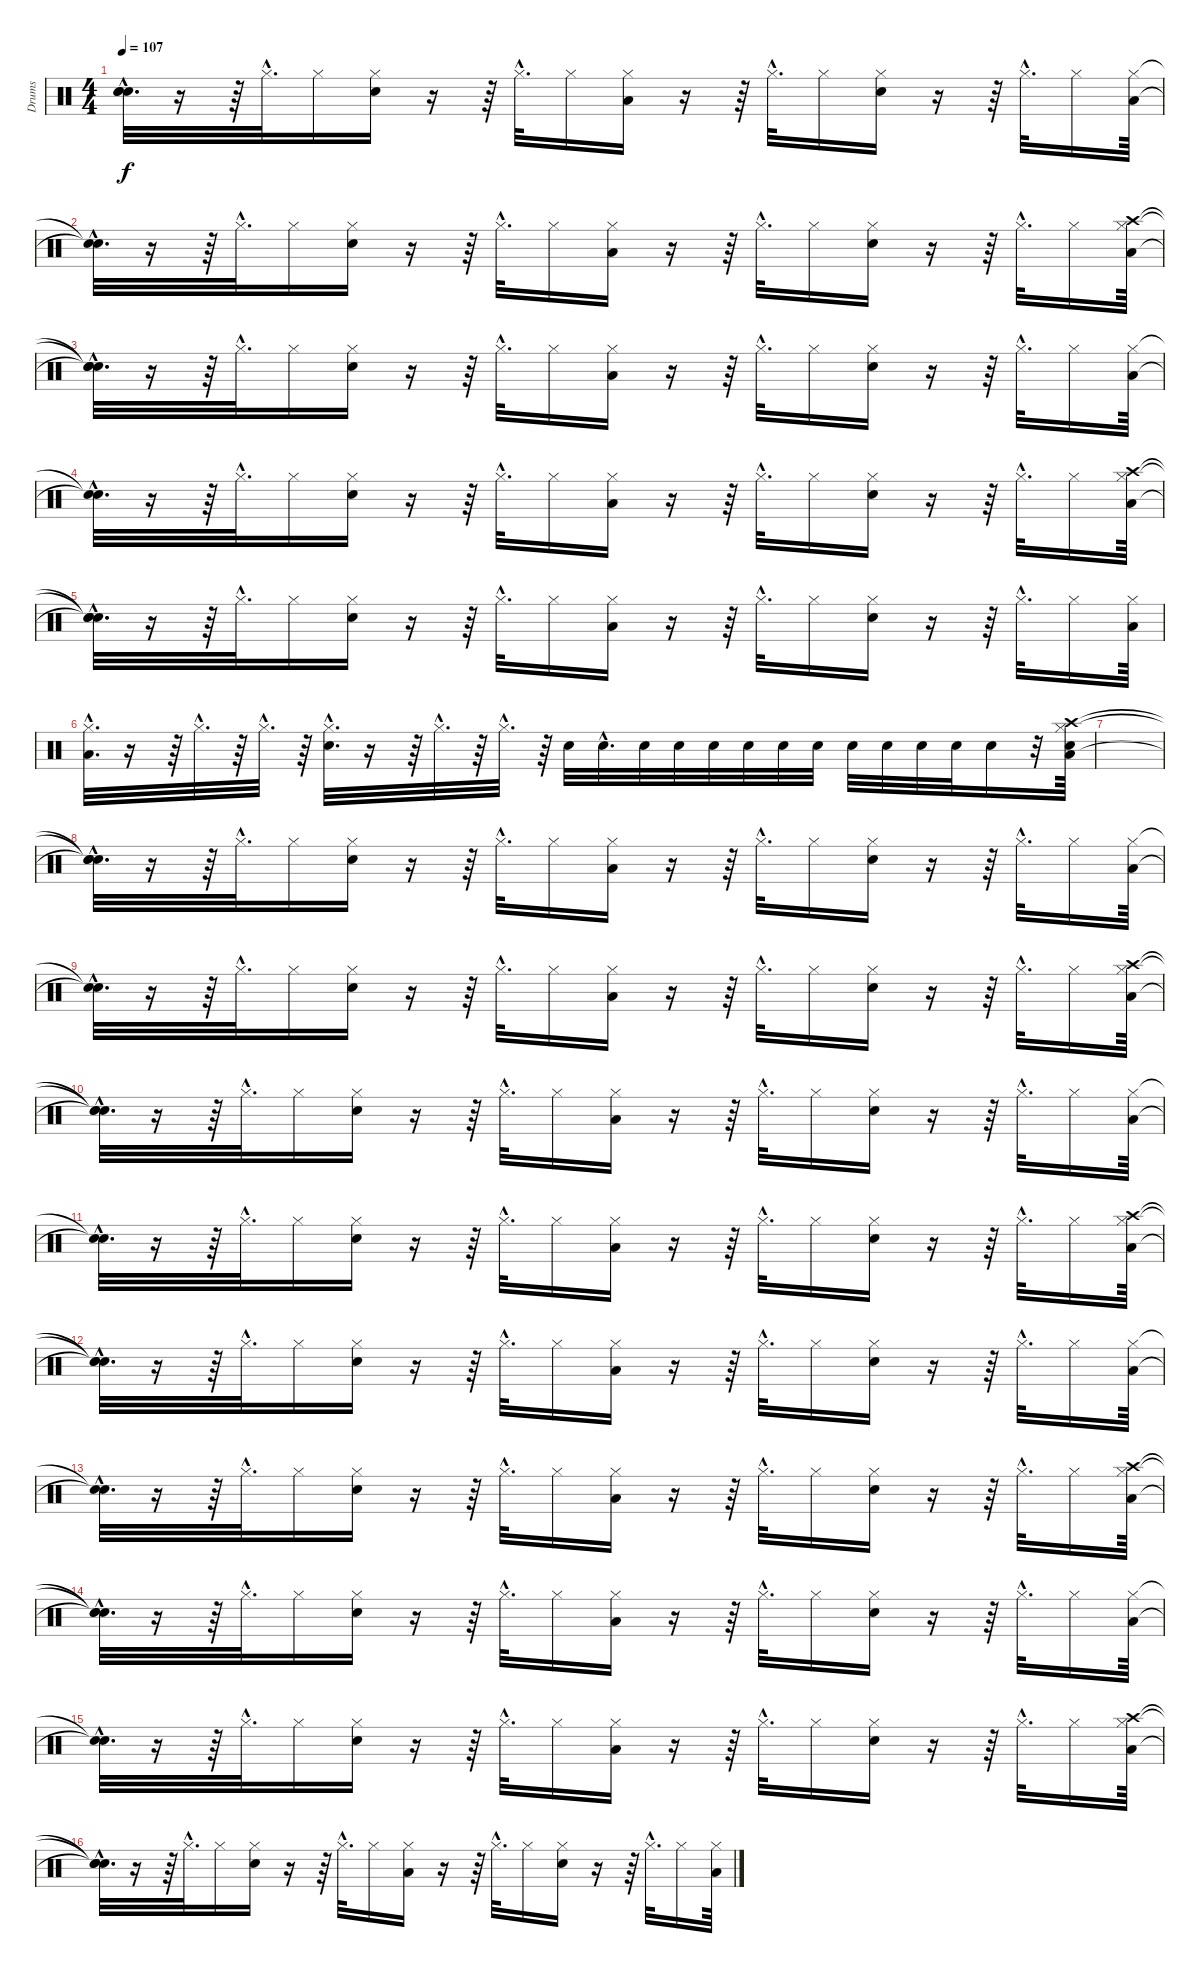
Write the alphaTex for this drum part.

\track ("Drums" "Drums") {instrument percussion}
\staff {score}
\articulation defaults
\ts (4 4)
\tempo 107
\clef neutral
\ks c
("Snare (hit)"{hac t} "Snare (hit)"{hac t} "Snare (hit)"{hac t}).32{d dy f} r.16 r.64 "Hi-Hat (closed)"{hac}.32{d} "Hi-Hat (closed)".16 ("Hi-Hat (closed)" "Snare (hit) 2").16 r.16 r.64 "Hi-Hat (closed)"{hac}.32{d} "Hi-Hat (closed)".16 ("Hi-Hat (closed)" "Low Tom (hit)").16 r.16 r.64 "Hi-Hat (closed)"{hac}.32{d} "Hi-Hat (closed)".16 ("Hi-Hat (closed)" "Snare (hit) 2").16 r.16 r.64 "Hi-Hat (closed)"{hac}.32{d} "Hi-Hat (closed)".16 ("Hi-Hat (closed)" "Low Tom (hit)").64 |
("Snare (hit)"{hac t} "Snare (hit)"{hac t}).32{d} r.16 r.64 "Hi-Hat (closed)"{hac}.32{d} "Hi-Hat (closed)".16 ("Hi-Hat (closed)" "Snare (hit) 2").16 r.16 r.64 "Hi-Hat (closed)"{hac}.32{d} "Hi-Hat (closed)".16 ("Hi-Hat (closed)" "Low Tom (hit)").16 r.16 r.64 "Hi-Hat (closed)"{hac}.32{d} "Hi-Hat (closed)".16 ("Hi-Hat (closed)" "Snare (hit) 2").16 r.16 r.64 "Hi-Hat (closed)"{hac}.32{d} "Hi-Hat (closed)".16 ("Hi-Hat (closed)" "Crash high (hit)" "Low Tom (hit)").64 |
("Snare (hit)"{hac t} "Snare (hit)"{hac t} "Snare (hit)"{hac t}).32{d} r.16 r.64 "Hi-Hat (closed)"{hac}.32{d} "Hi-Hat (closed)".16 ("Hi-Hat (closed)" "Snare (hit) 2").16 r.16 r.64 "Hi-Hat (closed)"{hac}.32{d} "Hi-Hat (closed)".16 ("Hi-Hat (closed)" "Low Tom (hit)").16 r.16 r.64 "Hi-Hat (closed)"{hac}.32{d} "Hi-Hat (closed)".16 ("Hi-Hat (closed)" "Snare (hit) 2").16 r.16 r.64 "Hi-Hat (closed)"{hac}.32{d} "Hi-Hat (closed)".16 ("Hi-Hat (closed)" "Low Tom (hit)").64 |
("Snare (hit)"{hac t} "Snare (hit)"{hac t}).32{d} r.16 r.64 "Hi-Hat (closed)"{hac}.32{d} "Hi-Hat (closed)".16 ("Hi-Hat (closed)" "Snare (hit) 2").16 r.16 r.64 "Hi-Hat (closed)"{hac}.32{d} "Hi-Hat (closed)".16 ("Hi-Hat (closed)" "Low Tom (hit)").16 r.16 r.64 "Hi-Hat (closed)"{hac}.32{d} "Hi-Hat (closed)".16 ("Hi-Hat (closed)" "Snare (hit) 2").16 r.16 r.64 "Hi-Hat (closed)"{hac}.32{d} "Hi-Hat (closed)".16 ("Hi-Hat (closed)" "Crash high (hit)" "Low Tom (hit)").64 |
("Snare (hit)"{hac t} "Snare (hit)"{hac t} "Snare (hit)"{hac t}).32{d} r.16 r.64 "Hi-Hat (closed)"{hac}.32{d} "Hi-Hat (closed)".16 ("Hi-Hat (closed)" "Snare (hit) 2").16 r.16 r.64 "Hi-Hat (closed)"{hac}.32{d} "Hi-Hat (closed)".16 ("Hi-Hat (closed)" "Low Tom (hit)").16 r.16 r.64 "Hi-Hat (closed)"{hac}.32{d} "Hi-Hat (closed)".16 ("Hi-Hat (closed)" "Snare (hit) 2").16 r.16 r.64 "Hi-Hat (closed)"{hac}.32{d} "Hi-Hat (closed)".16 ("Hi-Hat (closed)" "Low Tom (hit)").64 |
("Hi-Hat (closed)"{hac} "Low Tom (hit)"{hac}).32{d} r.16 r.64 "Hi-Hat (closed)"{hac}.32{d} r.64 "Hi-Hat (closed)"{hac}.32{d} r.64 ("Hi-Hat (closed)"{hac} "Snare (hit) 2"{hac}).32{d} r.16 r.64 "Hi-Hat (closed)"{hac}.32{d} r.64 "Hi-Hat (closed)"{hac}.32{d} r.64 "Snare (hit) 2".32 "Snare (hit) 2"{hac}.32{d} "Snare (hit) 2".32 "Snare (hit) 2".32 "Snare (hit) 2".32 "Snare (hit) 2".32 "Snare (hit) 2".32 "Snare (hit) 2".32 "Snare (hit) 2".32 "Snare (hit) 2".32 "Snare (hit) 2".32 "Snare (hit) 2".32 "Snare (hit) 2".16 r.32 ("Hi-Hat (closed)" "Crash high (hit)" "Low Tom (hit)" "Snare (hit) 2").64 |
|
("Snare (hit)"{hac t} "Snare (hit)"{hac t} "Snare (hit)"{hac t}).32{d} r.16 r.64 "Hi-Hat (closed)"{hac}.32{d} "Hi-Hat (closed)".16 ("Hi-Hat (closed)" "Snare (hit) 2").16 r.16 r.64 "Hi-Hat (closed)"{hac}.32{d} "Hi-Hat (closed)".16 ("Hi-Hat (closed)" "Low Tom (hit)").16 r.16 r.64 "Hi-Hat (closed)"{hac}.32{d} "Hi-Hat (closed)".16 ("Hi-Hat (closed)" "Snare (hit) 2").16 r.16 r.64 "Hi-Hat (closed)"{hac}.32{d} "Hi-Hat (closed)".16 ("Hi-Hat (closed)" "Low Tom (hit)").64 |
("Snare (hit)"{hac t} "Snare (hit)"{hac t}).32{d} r.16 r.64 "Hi-Hat (closed)"{hac}.32{d} "Hi-Hat (closed)".16 ("Hi-Hat (closed)" "Snare (hit) 2").16 r.16 r.64 "Hi-Hat (closed)"{hac}.32{d} "Hi-Hat (closed)".16 ("Hi-Hat (closed)" "Low Tom (hit)").16 r.16 r.64 "Hi-Hat (closed)"{hac}.32{d} "Hi-Hat (closed)".16 ("Hi-Hat (closed)" "Snare (hit) 2").16 r.16 r.64 "Hi-Hat (closed)"{hac}.32{d} "Hi-Hat (closed)".16 ("Hi-Hat (closed)" "Crash high (hit)" "Low Tom (hit)").64 |
("Snare (hit)"{hac t} "Snare (hit)"{hac t} "Snare (hit)"{hac t}).32{d} r.16 r.64 "Hi-Hat (closed)"{hac}.32{d} "Hi-Hat (closed)".16 ("Hi-Hat (closed)" "Snare (hit) 2").16 r.16 r.64 "Hi-Hat (closed)"{hac}.32{d} "Hi-Hat (closed)".16 ("Hi-Hat (closed)" "Low Tom (hit)").16 r.16 r.64 "Hi-Hat (closed)"{hac}.32{d} "Hi-Hat (closed)".16 ("Hi-Hat (closed)" "Snare (hit) 2").16 r.16 r.64 "Hi-Hat (closed)"{hac}.32{d} "Hi-Hat (closed)".16 ("Hi-Hat (closed)" "Low Tom (hit)").64 |
("Snare (hit)"{hac t} "Snare (hit)"{hac t}).32{d} r.16 r.64 "Hi-Hat (closed)"{hac}.32{d} "Hi-Hat (closed)".16 ("Hi-Hat (closed)" "Snare (hit) 2").16 r.16 r.64 "Hi-Hat (closed)"{hac}.32{d} "Hi-Hat (closed)".16 ("Hi-Hat (closed)" "Low Tom (hit)").16 r.16 r.64 "Hi-Hat (closed)"{hac}.32{d} "Hi-Hat (closed)".16 ("Hi-Hat (closed)" "Snare (hit) 2").16 r.16 r.64 "Hi-Hat (closed)"{hac}.32{d} "Hi-Hat (closed)".16 ("Hi-Hat (closed)" "Crash high (hit)" "Low Tom (hit)").64 |
("Snare (hit)"{hac t} "Snare (hit)"{hac t} "Snare (hit)"{hac t}).32{d} r.16 r.64 "Hi-Hat (closed)"{hac}.32{d} "Hi-Hat (closed)".16 ("Hi-Hat (closed)" "Snare (hit) 2").16 r.16 r.64 "Hi-Hat (closed)"{hac}.32{d} "Hi-Hat (closed)".16 ("Hi-Hat (closed)" "Low Tom (hit)").16 r.16 r.64 "Hi-Hat (closed)"{hac}.32{d} "Hi-Hat (closed)".16 ("Hi-Hat (closed)" "Snare (hit) 2").16 r.16 r.64 "Hi-Hat (closed)"{hac}.32{d} "Hi-Hat (closed)".16 ("Hi-Hat (closed)" "Low Tom (hit)").64 |
("Snare (hit)"{hac t} "Snare (hit)"{hac t}).32{d} r.16 r.64 "Hi-Hat (closed)"{hac}.32{d} "Hi-Hat (closed)".16 ("Hi-Hat (closed)" "Snare (hit) 2").16 r.16 r.64 "Hi-Hat (closed)"{hac}.32{d} "Hi-Hat (closed)".16 ("Hi-Hat (closed)" "Low Tom (hit)").16 r.16 r.64 "Hi-Hat (closed)"{hac}.32{d} "Hi-Hat (closed)".16 ("Hi-Hat (closed)" "Snare (hit) 2").16 r.16 r.64 "Hi-Hat (closed)"{hac}.32{d} "Hi-Hat (closed)".16 ("Hi-Hat (closed)" "Crash high (hit)" "Low Tom (hit)").64 |
("Snare (hit)"{hac t} "Snare (hit)"{hac t} "Snare (hit)"{hac t}).32{d} r.16 r.64 "Hi-Hat (closed)"{hac}.32{d} "Hi-Hat (closed)".16 ("Hi-Hat (closed)" "Snare (hit) 2").16 r.16 r.64 "Hi-Hat (closed)"{hac}.32{d} "Hi-Hat (closed)".16 ("Hi-Hat (closed)" "Low Tom (hit)").16 r.16 r.64 "Hi-Hat (closed)"{hac}.32{d} "Hi-Hat (closed)".16 ("Hi-Hat (closed)" "Snare (hit) 2").16 r.16 r.64 "Hi-Hat (closed)"{hac}.32{d} "Hi-Hat (closed)".16 ("Hi-Hat (closed)" "Low Tom (hit)").64 |
("Snare (hit)"{hac t} "Snare (hit)"{hac t}).32{d} r.16 r.64 "Hi-Hat (closed)"{hac}.32{d} "Hi-Hat (closed)".16 ("Hi-Hat (closed)" "Snare (hit) 2").16 r.16 r.64 "Hi-Hat (closed)"{hac}.32{d} "Hi-Hat (closed)".16 ("Hi-Hat (closed)" "Low Tom (hit)").16 r.16 r.64 "Hi-Hat (closed)"{hac}.32{d} "Hi-Hat (closed)".16 ("Hi-Hat (closed)" "Snare (hit) 2").16 r.16 r.64 "Hi-Hat (closed)"{hac}.32{d} "Hi-Hat (closed)".16 ("Hi-Hat (closed)" "Crash high (hit)" "Low Tom (hit)").64 |
("Snare (hit)"{hac t} "Snare (hit)"{hac t} "Snare (hit)"{hac t}).32{d} r.16 r.64 "Hi-Hat (closed)"{hac}.32{d} "Hi-Hat (closed)".16 ("Hi-Hat (closed)" "Snare (hit) 2").16 r.16 r.64 "Hi-Hat (closed)"{hac}.32{d} "Hi-Hat (closed)".16 ("Hi-Hat (closed)" "Low Tom (hit)").16 r.16 r.64 "Hi-Hat (closed)"{hac}.32{d} "Hi-Hat (closed)".16 ("Hi-Hat (closed)" "Snare (hit) 2").16 r.16 r.64 "Hi-Hat (closed)"{hac}.32{d} "Hi-Hat (closed)".16 ("Hi-Hat (closed)" "Low Tom (hit)").64
